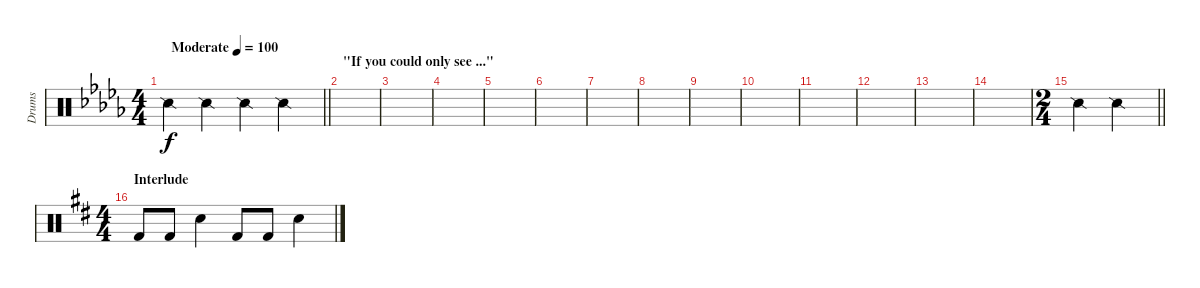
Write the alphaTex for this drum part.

\track ("Drums" "Drums") {instrument percussion}
\staff {score}
\articulation defaults
\ts (4 4)
\tempo (100 "Moderate")
\clef neutral
\barLineRight lightlight
\ks bbminor "Snare (side stick) 2".4{dy f} "Snare (side stick) 2".4 "Snare (side stick) 2".4 "Snare (side stick) 2".4
|
\section ("" "\"If you could only see ...\"")
|
|
|
|
|
|
|
|
|
|
|
|
|
\ts (2 4)
\barLineRight lightlight "Snare (side stick) 2".4 "Snare (side stick) 2".4
|
\ts (4 4)
\section ("" "Interlude")
\ks d "Kick (hit) 2".8 "Kick (hit) 2".8 "Snare (hit) 2".4 "Kick (hit) 2".8 "Kick (hit) 2".8 "Snare (hit) 2".4
